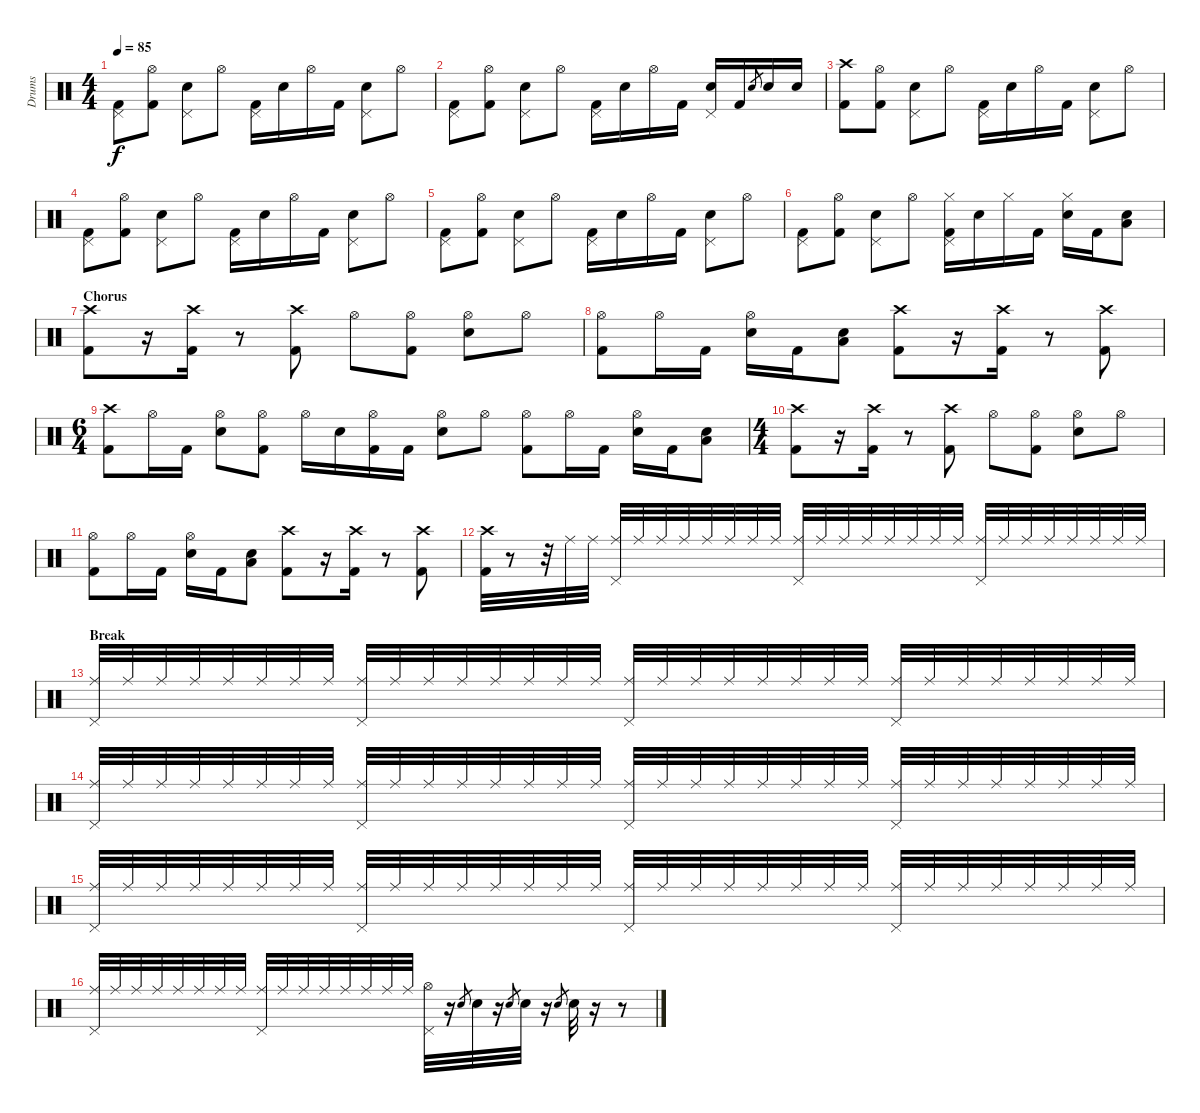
\track ("Drums" "Drums") {instrument percussion}
\staff {score}
\articulation defaults
\ts (4 4)
\tempo 85
\clef neutral
\ks c
("Pedal Hi-Hat (hit)" "Kick (hit) 2").8{dy f} ("Hi-Hat (open)" "Kick (hit) 2").8 ("Electric Snare (hit)" "Pedal Hi-Hat (hit)").8 "Hi-Hat (open)".8 ("Pedal Hi-Hat (hit)" "Kick (hit) 2").16 "Electric Snare (hit)".16 "Hi-Hat (open)".16 "Kick (hit) 2".16 ("Electric Snare (hit)" "Pedal Hi-Hat (hit)").8 "Hi-Hat (open)".8 |
("Pedal Hi-Hat (hit)" "Kick (hit) 2").8 ("Hi-Hat (open)" "Kick (hit) 2").8 ("Electric Snare (hit)" "Pedal Hi-Hat (hit)").8 "Hi-Hat (open)".8 ("Pedal Hi-Hat (hit)" "Kick (hit) 2").16 "Electric Snare (hit)".16 "Hi-Hat (open)".16 "Kick (hit) 2".16 ("Electric Snare (hit)" "Pedal Hi-Hat (hit)").16 "Kick (hit) 2".16 "Electric Snare (hit)".8{gr} "Electric Snare (hit)".16 "Electric Snare (hit)".16 |
("Crash high (hit)" "Kick (hit) 2").8 ("Hi-Hat (open)" "Kick (hit) 2").8 ("Electric Snare (hit)" "Pedal Hi-Hat (hit)").8 "Hi-Hat (open)".8 ("Pedal Hi-Hat (hit)" "Kick (hit) 2").16 "Electric Snare (hit)".16 "Hi-Hat (open)".16 "Kick (hit) 2".16 ("Electric Snare (hit)" "Pedal Hi-Hat (hit)").8 "Hi-Hat (open)".8 |
("Pedal Hi-Hat (hit)" "Kick (hit) 2").8 ("Hi-Hat (open)" "Kick (hit) 2").8 ("Electric Snare (hit)" "Pedal Hi-Hat (hit)").8 "Hi-Hat (open)".8 ("Pedal Hi-Hat (hit)" "Kick (hit) 2").16 "Electric Snare (hit)".16 "Hi-Hat (open)".16 "Kick (hit) 2".16 ("Electric Snare (hit)" "Pedal Hi-Hat (hit)").8 "Hi-Hat (open)".8 |
("Pedal Hi-Hat (hit)" "Kick (hit) 2").8 ("Hi-Hat (open)" "Kick (hit) 2").8 ("Electric Snare (hit)" "Pedal Hi-Hat (hit)").8 "Hi-Hat (open)".8 ("Pedal Hi-Hat (hit)" "Kick (hit) 2").16 "Electric Snare (hit)".16 "Hi-Hat (open)".16 "Kick (hit) 2".16 ("Electric Snare (hit)" "Pedal Hi-Hat (hit)").8 "Hi-Hat (open)".8 |
("Pedal Hi-Hat (hit)" "Kick (hit) 2").8 ("Hi-Hat (open)" "Kick (hit) 2").8 ("Electric Snare (hit)" "Pedal Hi-Hat (hit)").8 "Hi-Hat (open)".8 ("Hi-Hat (closed)" "Pedal Hi-Hat (hit)" "Kick (hit) 2").16 "Electric Snare (hit)".16 "Hi-Hat (closed)".16 "Kick (hit) 2".16 ("Hi-Hat (closed)" "Electric Snare (hit)").16 "Kick (hit) 2".16 ("Electric Snare (hit)" "Low Floor Tom (hit)").8 |
\section ("" "Chorus")
("Crash high (hit)" "Kick (hit) 2").8 r.16 ("Crash high (hit)" "Kick (hit) 2").16 r.8 ("Crash high (hit)" "Kick (hit) 2").8 "Hi-Hat (open)".8 ("Hi-Hat (open)" "Kick (hit) 2").8 ("Hi-Hat (open)" "Electric Snare (hit)").8 "Hi-Hat (open)".8 |
("Hi-Hat (open)" "Kick (hit) 2").8 "Hi-Hat (open)".16 "Kick (hit) 2".16 ("Hi-Hat (open)" "Electric Snare (hit)").16 "Kick (hit) 2".16 ("Electric Snare (hit)" "Low Floor Tom (hit)").8 ("Crash high (hit)" "Kick (hit) 2").8 r.16 ("Crash high (hit)" "Kick (hit) 2").16 r.8 ("Crash high (hit)" "Kick (hit) 2").8 |
\ts (6 4)
("Crash high (hit)" "Kick (hit) 2").8 "Hi-Hat (open)".16 "Kick (hit) 2".16 ("Hi-Hat (open)" "Electric Snare (hit)").8 ("Hi-Hat (open)" "Kick (hit) 2").8 "Hi-Hat (open)".16 "Electric Snare (hit)".16 ("Hi-Hat (open)" "Kick (hit) 2").16 "Kick (hit) 2".16 ("Hi-Hat (open)" "Electric Snare (hit)").8 "Hi-Hat (open)".8 ("Hi-Hat (open)" "Kick (hit) 2").8 "Hi-Hat (open)".16 "Kick (hit) 2".16 ("Hi-Hat (open)" "Electric Snare (hit)").16 "Kick (hit) 2".16 ("Electric Snare (hit)" "Low Floor Tom (hit)").8 |
\ts (4 4)
("Crash high (hit)" "Kick (hit) 2").8 r.16 ("Crash high (hit)" "Kick (hit) 2").16 r.8 ("Crash high (hit)" "Kick (hit) 2").8 "Hi-Hat (open)".8 ("Hi-Hat (open)" "Kick (hit) 2").8 ("Hi-Hat (open)" "Electric Snare (hit)").8 "Hi-Hat (open)".8 |
("Hi-Hat (open)" "Kick (hit) 2").8 "Hi-Hat (open)".16 "Kick (hit) 2".16 ("Hi-Hat (open)" "Electric Snare (hit)").16 "Kick (hit) 2".16 ("Electric Snare (hit)" "Low Floor Tom (hit)").8 ("Crash high (hit)" "Kick (hit) 2").8 r.16 ("Crash high (hit)" "Kick (hit) 2").16 r.8 ("Crash high (hit)" "Kick (hit) 2").8 |
("Crash high (hit)" "Kick (hit) 2").32 r.8 r.32 "Ride (middle)".32 "Ride (middle)".32 ("Ride (middle)" "Pedal Hi-Hat (hit)").32 "Ride (middle)".32 "Ride (middle)".32 "Ride (middle)".32 "Ride (middle)".32 "Ride (middle)".32 "Ride (middle)".32 "Ride (middle)".32 ("Ride (middle)" "Pedal Hi-Hat (hit)").32 "Ride (middle)".32 "Ride (middle)".32 "Ride (middle)".32 "Ride (middle)".32 "Ride (middle)".32 "Ride (middle)".32 "Ride (middle)".32 ("Ride (middle)" "Pedal Hi-Hat (hit)").32 "Ride (middle)".32 "Ride (middle)".32 "Ride (middle)".32 "Ride (middle)".32 "Ride (middle)".32 "Ride (middle)".32 "Ride (middle)".32 |
\section ("" "Break")
("Ride (middle)" "Pedal Hi-Hat (hit)").32 "Ride (middle)".32 "Ride (middle)".32 "Ride (middle)".32 "Ride (middle)".32 "Ride (middle)".32 "Ride (middle)".32 "Ride (middle)".32 ("Ride (middle)" "Pedal Hi-Hat (hit)").32 "Ride (middle)".32 "Ride (middle)".32 "Ride (middle)".32 "Ride (middle)".32 "Ride (middle)".32 "Ride (middle)".32 "Ride (middle)".32 ("Ride (middle)" "Pedal Hi-Hat (hit)").32 "Ride (middle)".32 "Ride (middle)".32 "Ride (middle)".32 "Ride (middle)".32 "Ride (middle)".32 "Ride (middle)".32 "Ride (middle)".32 ("Ride (middle)" "Pedal Hi-Hat (hit)").32 "Ride (middle)".32 "Ride (middle)".32 "Ride (middle)".32 "Ride (middle)".32 "Ride (middle)".32 "Ride (middle)".32 "Ride (middle)".32 |
("Ride (middle)" "Pedal Hi-Hat (hit)").32 "Ride (middle)".32 "Ride (middle)".32 "Ride (middle)".32 "Ride (middle)".32 "Ride (middle)".32 "Ride (middle)".32 "Ride (middle)".32 ("Ride (middle)" "Pedal Hi-Hat (hit)").32 "Ride (middle)".32 "Ride (middle)".32 "Ride (middle)".32 "Ride (middle)".32 "Ride (middle)".32 "Ride (middle)".32 "Ride (middle)".32 ("Ride (middle)" "Pedal Hi-Hat (hit)").32 "Ride (middle)".32 "Ride (middle)".32 "Ride (middle)".32 "Ride (middle)".32 "Ride (middle)".32 "Ride (middle)".32 "Ride (middle)".32 ("Ride (middle)" "Pedal Hi-Hat (hit)").32 "Ride (middle)".32 "Ride (middle)".32 "Ride (middle)".32 "Ride (middle)".32 "Ride (middle)".32 "Ride (middle)".32 "Ride (middle)".32 |
("Ride (middle)" "Pedal Hi-Hat (hit)").32 "Ride (middle)".32 "Ride (middle)".32 "Ride (middle)".32 "Ride (middle)".32 "Ride (middle)".32 "Ride (middle)".32 "Ride (middle)".32 ("Ride (middle)" "Pedal Hi-Hat (hit)").32 "Ride (middle)".32 "Ride (middle)".32 "Ride (middle)".32 "Ride (middle)".32 "Ride (middle)".32 "Ride (middle)".32 "Ride (middle)".32 ("Ride (middle)" "Pedal Hi-Hat (hit)").32 "Ride (middle)".32 "Ride (middle)".32 "Ride (middle)".32 "Ride (middle)".32 "Ride (middle)".32 "Ride (middle)".32 "Ride (middle)".32 ("Ride (middle)" "Pedal Hi-Hat (hit)").32 "Ride (middle)".32 "Ride (middle)".32 "Ride (middle)".32 "Ride (middle)".32 "Ride (middle)".32 "Ride (middle)".32 "Ride (middle)".32 |
("Ride (middle)" "Pedal Hi-Hat (hit)").32 "Ride (middle)".32 "Ride (middle)".32 "Ride (middle)".32 "Ride (middle)".32 "Ride (middle)".32 "Ride (middle)".32 "Ride (middle)".32 ("Ride (middle)" "Pedal Hi-Hat (hit)").32 "Ride (middle)".32 "Ride (middle)".32 "Ride (middle)".32 "Ride (middle)".32 "Ride (middle)".32 "Ride (middle)".32 "Ride (middle)".32 ("Hi-Hat (open)" "Pedal Hi-Hat (hit)").32 r.16 "Electric Snare (hit)".8{gr} "Electric Snare (hit)".32 r.16 "Electric Snare (hit)".8{gr} "Electric Snare (hit)".32 r.16 "Electric Snare (hit)".8{gr} "Electric Snare (hit)".32 r.16 r.8
